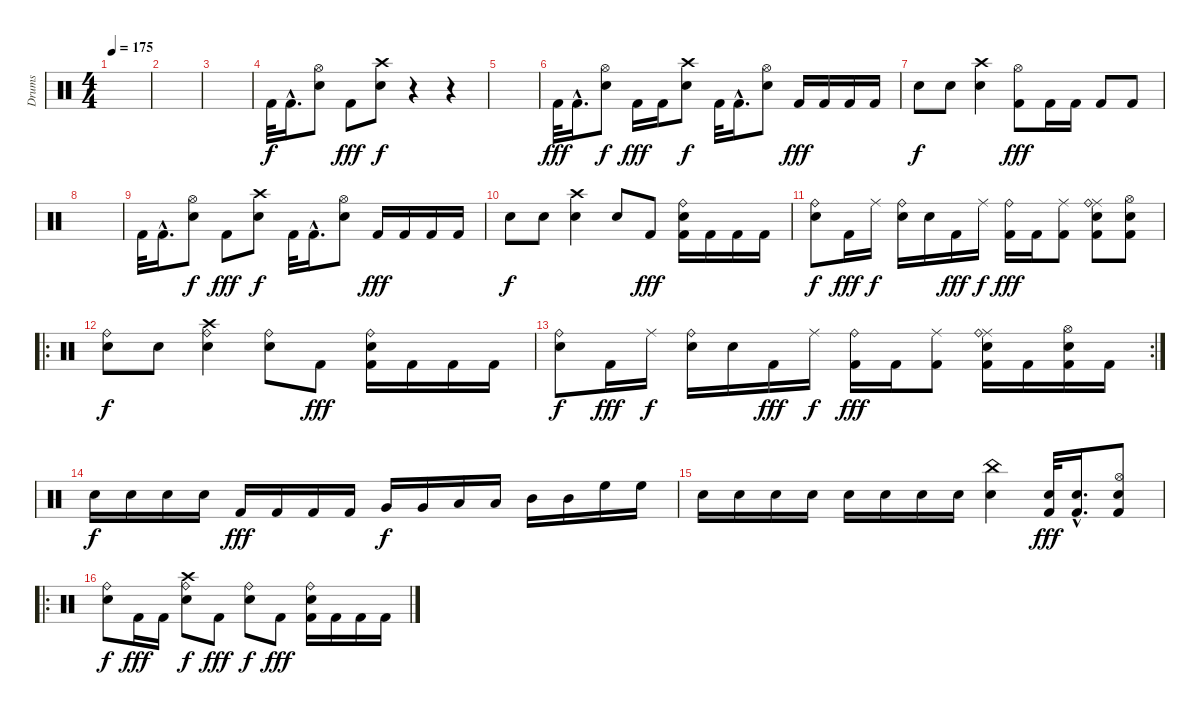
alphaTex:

\track ("Drums" "Drums") {instrument percussion}
\staff {score}
\articulation defaults
\ts (4 4)
\tempo 175
\clef neutral
\ks c
|
|
|
"Kick (hit) 2".32 "Kick (hit) 2"{hac}.16{d} ("Hi-Hat (open)" "Electric Snare (hit)").8{dy f} "Kick (hit) 2".8{dy fff} ("Crash high (hit)" "Electric Snare (hit)").8{dy f} r.4 r.4 |
|
"Kick (hit) 2".32{dy fff} "Kick (hit) 2"{hac}.16{d} ("Hi-Hat (open)" "Electric Snare (hit)").8{dy f} "Kick (hit) 2".16{dy fff} "Kick (hit) 2".16 ("Crash high (hit)" "Electric Snare (hit)").8{dy f} "Kick (hit) 2".32 "Kick (hit) 2"{hac}.16{d} ("Hi-Hat (open)" "Electric Snare (hit)").8 "Kick (hit) 2".16{dy fff} "Kick (hit) 2".16 "Kick (hit) 2".16 "Kick (hit) 2".16 |
"Electric Snare (hit)".8{dy f} "Electric Snare (hit)".8 ("Crash high (hit)" "Electric Snare (hit)").4 ("Hi-Hat (open)" "Kick (hit) 2").8{dy fff} "Kick (hit) 2".16 "Kick (hit) 2".16 "Kick (hit) 2".8 "Kick (hit) 2".8 |
|
"Kick (hit) 2".32 "Kick (hit) 2"{hac}.16{d} ("Hi-Hat (open)" "Electric Snare (hit)").8{dy f} "Kick (hit) 2".8{dy fff} ("Crash high (hit)" "Electric Snare (hit)").8{dy f} "Kick (hit) 2".32 "Kick (hit) 2"{hac}.16{d} ("Hi-Hat (open)" "Electric Snare (hit)").8 "Kick (hit) 2".16{dy fff} "Kick (hit) 2".16 "Kick (hit) 2".16 "Kick (hit) 2".16 |
"Electric Snare (hit)".8{dy f} "Electric Snare (hit)".8 ("Crash high (hit)" "Electric Snare (hit)").4 "Electric Snare (hit)".8 "Kick (hit) 2".8{dy fff} ("Ride (bell)" "Electric Snare (hit)" "Kick (hit) 2").16 "Kick (hit) 2".16 "Kick (hit) 2".16 "Kick (hit) 2".16 |
("Ride (bell)" "Electric Snare (hit)").8{dy f} "Kick (hit) 2".16{dy fff} "Ride (middle)".16{dy f} ("Ride (bell)" "Electric Snare (hit)").16 "Electric Snare (hit)".16 "Kick (hit) 2".16{dy fff} "Ride (middle)".16{dy f} ("Ride (bell)" "Kick (hit) 2").16{dy fff} "Kick (hit) 2".16 ("Ride (middle)" "Kick (hit) 2").8 ("Ride (middle)" "Ride (bell)" "Electric Snare (hit)" "Kick (hit) 2").8 ("Hi-Hat (open)" "Electric Snare (hit)" "Kick (hit) 2").8 |
\ro
("Ride (bell)" "Electric Snare (hit)").8{dy f} "Electric Snare (hit)".8 ("Crash high (hit)" "Ride (bell)" "Electric Snare (hit)").4 ("Ride (bell)" "Electric Snare (hit)").8 "Kick (hit) 2".8{dy fff} ("Ride (bell)" "Electric Snare (hit)" "Kick (hit) 2").16 "Kick (hit) 2".16 "Kick (hit) 2".16 "Kick (hit) 2".16 |
\rc 2
("Ride (bell)" "Electric Snare (hit)").8{dy f} "Kick (hit) 2".16{dy fff} "Ride (middle)".16{dy f} ("Ride (bell)" "Electric Snare (hit)").16 "Electric Snare (hit)".16 "Kick (hit) 2".16{dy fff} "Ride (middle)".16{dy f} ("Ride (bell)" "Kick (hit) 2").16{dy fff} "Kick (hit) 2".16 ("Ride (middle)" "Kick (hit) 2").8 ("Ride (middle)" "Ride (bell)" "Electric Snare (hit)" "Kick (hit) 2").16 "Kick (hit) 2".16 ("Hi-Hat (open)" "Electric Snare (hit)" "Kick (hit) 2").16 "Kick (hit) 2".16 |
"Electric Snare (hit)".16{dy f} "Electric Snare (hit)".16 "Electric Snare (hit)".16 "Electric Snare (hit)".16 "Kick (hit) 2".16{dy fff} "Kick (hit) 2".16 "Kick (hit) 2".16 "Kick (hit) 2".16 "Very Low Tom (hit)".16{dy f} "Very Low Tom (hit)".16 "Low Tom (hit)".16 "Low Tom (hit)".16 "Mid Tom (hit)".16 "Mid Tom (hit)".16 "High Floor Tom (hit)".16 "High Floor Tom (hit)".16 |
"Electric Snare (hit)".16 "Electric Snare (hit)".16 "Electric Snare (hit)".16 "Electric Snare (hit)".16 "Electric Snare (hit)".16 "Electric Snare (hit)".16 "Electric Snare (hit)".16 "Electric Snare (hit)".16 ("China (hit)" "Electric Snare (hit)").4 ("Electric Snare (hit)" "Kick (hit) 2").32{dy fff} ("Electric Snare (hit)"{hac} "Kick (hit) 2"{hac}).16{d} ("Hi-Hat (open)" "Electric Snare (hit)" "Kick (hit) 2").8 |
\ro
("Ride (bell)" "Electric Snare (hit)").8{dy f} "Kick (hit) 2".16{dy fff} "Kick (hit) 2".16 ("Crash high (hit)" "Ride (bell)" "Electric Snare (hit)").8{dy f} "Kick (hit) 2".8{dy fff} ("Ride (bell)" "Electric Snare (hit)").8{dy f} "Kick (hit) 2".8{dy fff} ("Ride (bell)" "Electric Snare (hit)" "Kick (hit) 2").16 "Kick (hit) 2".16 "Kick (hit) 2".16 "Kick (hit) 2".16
